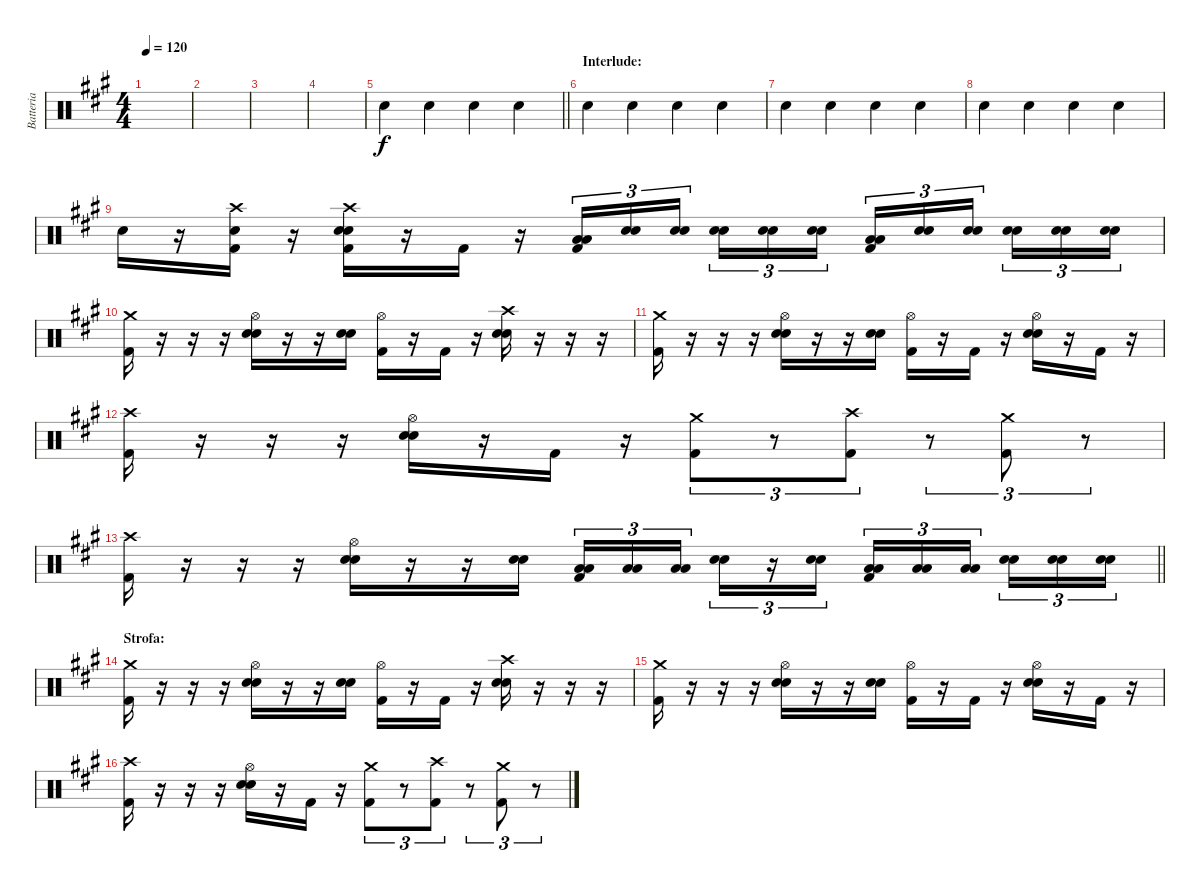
\track ("Batteria" "Batteria") {instrument percussion}
\staff {score}
\articulation defaults
\ts (4 4)
\tempo 120
\clef neutral
\ks a
|
|
|
|
\barLineRight lightlight "Hand Clap (hit)".4 "Hand Clap (hit)".4 "Hand Clap (hit)".4 "Hand Clap (hit)".4
|
\section ("" "Interlude:")
"Hand Clap (hit)".4 "Hand Clap (hit)".4 "Hand Clap (hit)".4 "Hand Clap (hit)".4 |
"Hand Clap (hit)".4 "Hand Clap (hit)".4 "Hand Clap (hit)".4 "Hand Clap (hit)".4 |
"Hand Clap (hit)".4 "Hand Clap (hit)".4 "Hand Clap (hit)".4 "Hand Clap (hit)".4 |
"Hand Clap (hit)".16 r.16 ("Kick (hit) 2" "Snare (hit) 2" "Crash high (hit)").16 r.16 ("Kick (hit) 2" "Snare (hit) 2" "Hand Clap (hit)" "Crash high (hit)").16 r.16 "Kick (hit) 2".16 r.16 ("Kick (hit) 2" "Low Tom (hit)" "Low Tom (hit)").16{tu (3 2)} ("Snare (hit) 2" "Snare (hit) 2").16{tu (3 2)} ("Snare (hit) 2" "Snare (hit) 2").16{tu (3 2) beam splitsecondary} ("Snare (hit) 2" "Snare (hit) 2").16{tu (3 2)} ("Snare (hit) 2" "Snare (hit) 2").16{tu (3 2)} ("Snare (hit) 2" "Snare (hit) 2").16{tu (3 2)} ("Kick (hit) 2" "Low Tom (hit)" "Low Tom (hit)").16{tu (3 2)} ("Snare (hit) 2" "Snare (hit) 2").16{tu (3 2)} ("Snare (hit) 2" "Snare (hit) 2").16{tu (3 2) beam splitsecondary} ("Snare (hit) 2" "Snare (hit) 2").16{tu (3 2)} ("Snare (hit) 2" "Snare (hit) 2").16{tu (3 2)} ("Snare (hit) 2" "Snare (hit) 2").16{tu (3 2)} |
("Kick (hit) 2" "Crash medium (hit)").16 r.16 r.16 r.16 ("Snare (hit) 2" "Snare (hit) 2" "Hi-Hat (open)").16 r.16 r.16 ("Snare (hit) 2" "Snare (hit) 2").16 ("Kick (hit) 2" "Hi-Hat (open)").16 r.16 "Kick (hit) 2".16 r.16 ("Snare (hit) 2" "Snare (hit) 2" "Crash high (hit)").16 r.16 r.16 r.16 |
("Kick (hit) 2" "Crash medium (hit)").16 r.16 r.16 r.16 ("Snare (hit) 2" "Snare (hit) 2" "Hi-Hat (open)").16 r.16 r.16 ("Snare (hit) 2" "Snare (hit) 2").16 ("Kick (hit) 2" "Hi-Hat (open)").16 r.16 "Kick (hit) 2".16 r.16 ("Snare (hit) 2" "Snare (hit) 2" "Hi-Hat (open)").16 r.16 "Kick (hit) 2".16 r.16 |
("Kick (hit) 2" "Crash high (hit)").16 r.16 r.16 r.16 ("Snare (hit) 2" "Snare (hit) 2" "Hi-Hat (open)").16 r.16 "Kick (hit) 2".16 r.16 ("Kick (hit) 2" "Crash medium (hit)").8{tu (3 2)} r.8{tu (3 2)} ("Kick (hit) 2" "Crash high (hit)").8{tu (3 2)} r.8{tu (3 2)} ("Kick (hit) 2" "Crash medium (hit)").8{tu (3 2)} r.8{tu (3 2)} |
\barLineRight lightlight
("Kick (hit) 2" "Crash high (hit)").16 r.16 r.16 r.16 ("Snare (hit) 2" "Snare (hit) 2" "Hi-Hat (open)").16 r.16 r.16 ("Snare (hit) 2" "Snare (hit) 2").16 ("Kick (hit) 2" "Low Tom (hit)" "Low Tom (hit)").16{tu (3 2)} ("Low Tom (hit)" "Low Tom (hit)").16{tu (3 2)} ("Low Tom (hit)" "Low Tom (hit)").16{tu (3 2) beam splitsecondary} ("Snare (hit) 2" "Snare (hit) 2").16{tu (3 2)} r.16{tu (3 2)} ("Snare (hit) 2" "Snare (hit) 2").16{tu (3 2)} ("Kick (hit) 2" "Low Tom (hit)" "Low Tom (hit)").16{tu (3 2)} ("Low Tom (hit)" "Low Tom (hit)").16{tu (3 2)} ("Low Tom (hit)" "Low Tom (hit)").16{tu (3 2) beam splitsecondary} ("Snare (hit) 2" "Snare (hit) 2").16{tu (3 2)} ("Snare (hit) 2" "Snare (hit) 2").16{tu (3 2)} ("Snare (hit) 2" "Snare (hit) 2").16{tu (3 2)} |
\section ("" "Strofa:")
("Kick (hit) 2" "Crash medium (hit)").16 r.16 r.16 r.16 ("Snare (hit) 2" "Snare (hit) 2" "Hi-Hat (open)").16 r.16 r.16 ("Snare (hit) 2" "Snare (hit) 2").16 ("Kick (hit) 2" "Hi-Hat (open)").16 r.16 "Kick (hit) 2".16 r.16 ("Snare (hit) 2" "Snare (hit) 2" "Crash high (hit)").16 r.16 r.16 r.16 |
("Kick (hit) 2" "Crash medium (hit)").16 r.16 r.16 r.16 ("Snare (hit) 2" "Snare (hit) 2" "Hi-Hat (open)").16 r.16 r.16 ("Snare (hit) 2" "Snare (hit) 2").16 ("Kick (hit) 2" "Hi-Hat (open)").16 r.16 "Kick (hit) 2".16 r.16 ("Snare (hit) 2" "Snare (hit) 2" "Hi-Hat (open)").16 r.16 "Kick (hit) 2".16 r.16 |
("Kick (hit) 2" "Crash high (hit)").16 r.16 r.16 r.16 ("Snare (hit) 2" "Snare (hit) 2" "Hi-Hat (open)").16 r.16 "Kick (hit) 2".16 r.16 ("Kick (hit) 2" "Crash medium (hit)").8{tu (3 2)} r.8{tu (3 2)} ("Kick (hit) 2" "Crash high (hit)").8{tu (3 2)} r.8{tu (3 2)} ("Kick (hit) 2" "Crash medium (hit)").8{tu (3 2)} r.8{tu (3 2)}
